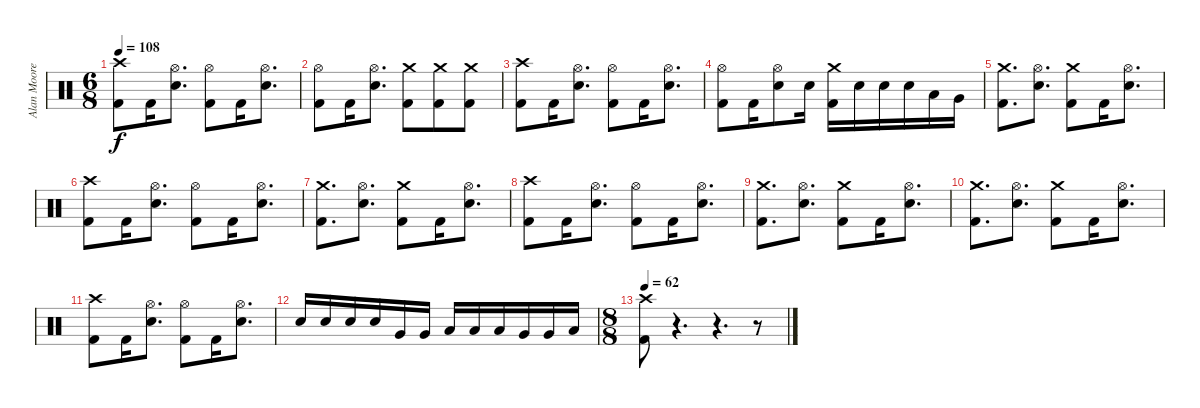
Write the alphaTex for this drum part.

\track ("Alan Moore" "Alan Moore") {instrument percussion}
\staff {score}
\articulation defaults
\ts (6 8)
\tempo 108
\clef neutral
\ks c
("Crash high (hit)" "Kick (hit) 2").8{dy f} "Kick (hit) 2".16 ("Hi-Hat (open)" "Snare (hit) 2").8{d} ("Hi-Hat (open)" "Kick (hit) 2").8 "Kick (hit) 2".16 ("Hi-Hat (open)" "Snare (hit) 2").8{d} |
("Hi-Hat (open)" "Kick (hit) 2").8 "Kick (hit) 2".16 ("Hi-Hat (open)" "Snare (hit) 2").8{d} ("Crash medium (hit)" "Kick (hit) 2").8 ("Crash medium (hit)" "Kick (hit) 2").8 ("Crash medium (hit)" "Kick (hit) 2").8 |
("Crash high (hit)" "Kick (hit) 2").8 "Kick (hit) 2".16 ("Hi-Hat (open)" "Snare (hit) 2").8{d} ("Hi-Hat (open)" "Kick (hit) 2").8 "Kick (hit) 2".16 ("Hi-Hat (open)" "Snare (hit) 2").8{d} |
("Hi-Hat (open)" "Kick (hit) 2").8 "Kick (hit) 2".16 ("Hi-Hat (open)" "Snare (hit) 2").8 "Snare (hit) 2".16 ("Crash medium (hit)" "Kick (hit) 2").16 "Snare (hit) 2".16 "Snare (hit) 2".16 "Snare (hit) 2".16 "Low Tom (hit)".16 "Very Low Tom (hit)".16 |
("Crash medium (hit)" "Kick (hit) 2").8{d} ("Hi-Hat (open)" "Snare (hit) 2").8{d} ("Crash medium (hit)" "Kick (hit) 2").8 "Kick (hit) 2".16 ("Hi-Hat (open)" "Snare (hit) 2").8{d} |
("Crash high (hit)" "Kick (hit) 2").8 "Kick (hit) 2".16 ("Hi-Hat (open)" "Snare (hit) 2").8{d} ("Hi-Hat (open)" "Kick (hit) 2").8 "Kick (hit) 2".16 ("Hi-Hat (open)" "Snare (hit) 2").8{d} |
("Crash medium (hit)" "Kick (hit) 2").8{d} ("Hi-Hat (open)" "Snare (hit) 2").8{d} ("Crash medium (hit)" "Kick (hit) 2").8 "Kick (hit) 2".16 ("Hi-Hat (open)" "Snare (hit) 2").8{d} |
("Crash high (hit)" "Kick (hit) 2").8 "Kick (hit) 2".16 ("Hi-Hat (open)" "Snare (hit) 2").8{d} ("Hi-Hat (open)" "Kick (hit) 2").8 "Kick (hit) 2".16 ("Hi-Hat (open)" "Snare (hit) 2").8{d} |
("Crash medium (hit)" "Kick (hit) 2").8{d} ("Hi-Hat (open)" "Snare (hit) 2").8{d} ("Crash medium (hit)" "Kick (hit) 2").8 "Kick (hit) 2".16 ("Hi-Hat (open)" "Snare (hit) 2").8{d} |
("Crash medium (hit)" "Kick (hit) 2").8{d} ("Hi-Hat (open)" "Snare (hit) 2").8{d} ("Crash medium (hit)" "Kick (hit) 2").8 "Kick (hit) 2".16 ("Hi-Hat (open)" "Snare (hit) 2").8{d} |
("Crash high (hit)" "Kick (hit) 2").8 "Kick (hit) 2".16 ("Hi-Hat (open)" "Snare (hit) 2").8{d} ("Hi-Hat (open)" "Kick (hit) 2").8 "Kick (hit) 2".16 ("Hi-Hat (open)" "Snare (hit) 2").8{d} |
"Snare (hit) 2".16 "Snare (hit) 2".16 "Snare (hit) 2".16 "Snare (hit) 2".16 "Very Low Tom (hit)".16 "Very Low Tom (hit)".16 "Low Tom (hit)".16 "Low Tom (hit)".16 "Low Floor Tom (hit)".16 "Very Low Tom (hit)".16 "Very Low Tom (hit)".16 "Low Floor Tom (hit)".16 |
\ts (8 8)
\tempo 62
("Crash high (hit)" "Kick (hit) 2").8 r.4{d} r.4{d} r.8
